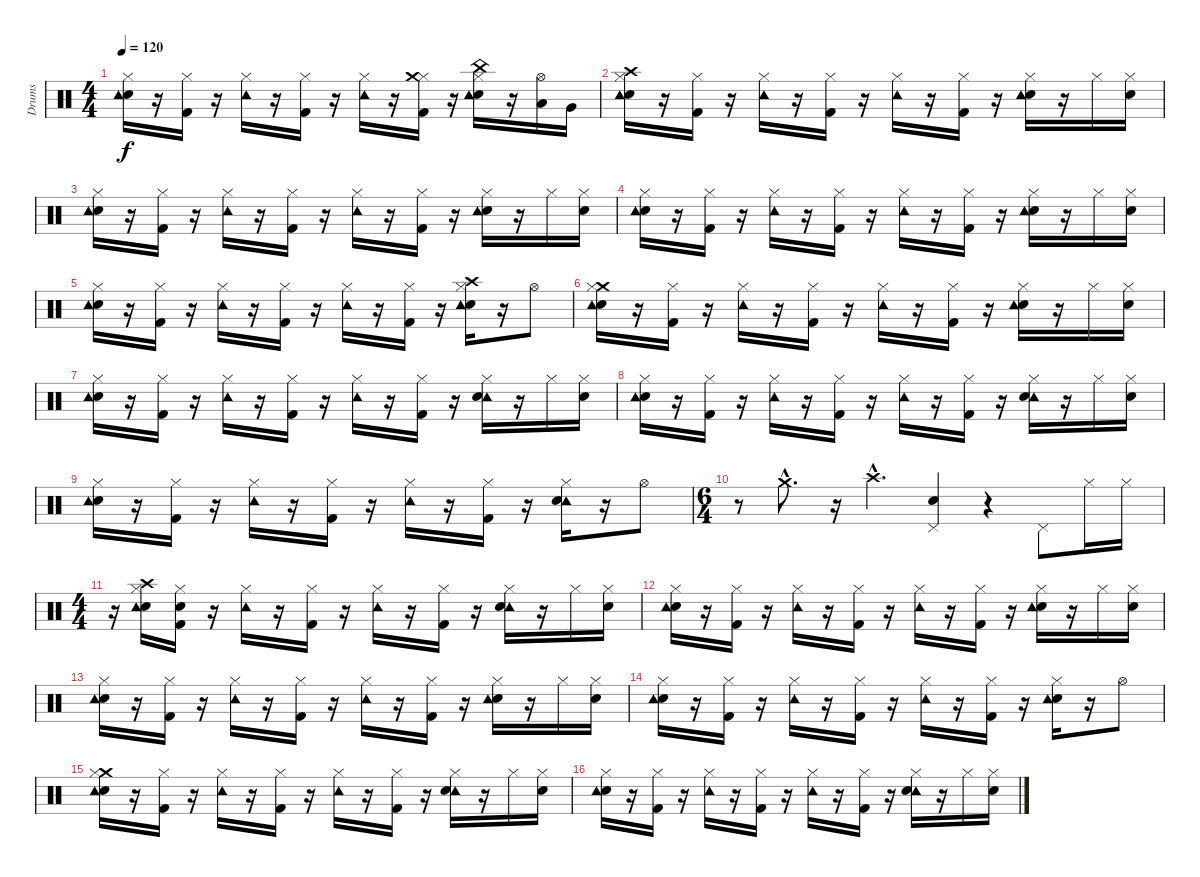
\track ("Drums" "Drums") {instrument percussion}
\staff {score}
\articulation defaults
\ts (4 4)
\tempo 120
\clef neutral
\ks c
("Snare (hit)" "Tambourine (hit)" "Hi-Hat (closed)").16{dy f} r.16 ("Hi-Hat (closed)" "Kick (hit) 2").16 r.16 ("Hi-Hat (closed)" "Tambourine (hit)").16 r.16 ("Hi-Hat (closed)" "Kick (hit) 2").16 r.16 ("Hi-Hat (closed)" "Tambourine (hit)").16 r.16 ("Hi-Hat (closed)" "Kick (hit) 2" "Crash medium (hit)").16 r.16 ("China (hit)" "Hi-Hat (closed)" "Snare (hit) 2" "Tambourine (hit)").16 r.16 ("Hi-Hat (open)" "Low Tom (hit)").16 "Very Low Tom (hit)".16 |
("Snare (hit)" "Hi-Hat (closed)" "Crash high (hit)" "Tambourine (hit)").16 r.16 ("Hi-Hat (closed)" "Kick (hit) 2").16 r.16 ("Tambourine (hit)" "Hi-Hat (closed)").16 r.16 ("Hi-Hat (closed)" "Kick (hit) 2").16 r.16 ("Tambourine (hit)" "Hi-Hat (closed)").16 r.16 ("Hi-Hat (closed)" "Kick (hit) 2").16 r.16 ("Snare (hit) 2" "Tambourine (hit)" "Hi-Hat (closed)").16 r.16 "Hi-Hat (closed)".16 ("Snare (hit)" "Hi-Hat (closed)").16 |
("Snare (hit)" "Hi-Hat (closed)" "Tambourine (hit)").16 r.16 ("Kick (hit) 2" "Hi-Hat (closed)").16 r.16 ("Tambourine (hit)" "Hi-Hat (closed)").16 r.16 ("Hi-Hat (closed)" "Kick (hit) 2").16 r.16 ("Hi-Hat (closed)" "Tambourine (hit)").16 r.16 ("Kick (hit) 2" "Hi-Hat (closed)").16 r.16 ("Snare (hit) 2" "Tambourine (hit)" "Hi-Hat (closed)").16 r.16 "Hi-Hat (closed)".16 ("Snare (hit)" "Hi-Hat (closed)").16 |
("Snare (hit)" "Hi-Hat (closed)" "Tambourine (hit)").16 r.16 ("Kick (hit) 2" "Hi-Hat (closed)").16 r.16 ("Tambourine (hit)" "Hi-Hat (closed)").16 r.16 ("Kick (hit) 2" "Hi-Hat (closed)").16 r.16 ("Tambourine (hit)" "Hi-Hat (closed)").16 r.16 ("Kick (hit) 2" "Hi-Hat (closed)").16 r.16 ("Hi-Hat (closed)" "Snare (hit) 2" "Tambourine (hit)").16 r.16 "Hi-Hat (closed)".16 ("Snare (hit)" "Hi-Hat (closed)").16 |
("Snare (hit)" "Tambourine (hit)" "Hi-Hat (closed)").16 r.16 ("Hi-Hat (closed)" "Kick (hit) 2").16 r.16 ("Hi-Hat (closed)" "Tambourine (hit)").16 r.16 ("Hi-Hat (closed)" "Kick (hit) 2").16 r.16 ("Tambourine (hit)" "Hi-Hat (closed)").16 r.16 ("Hi-Hat (closed)" "Kick (hit) 2").16 r.16 ("Hi-Hat (closed)" "Crash high (hit)" "Snare (hit) 2" "Tambourine (hit)").16 r.16 "Hi-Hat (open)".8 |
("Snare (hit)" "Crash medium (hit)" "Tambourine (hit)" "Hi-Hat (closed)").16 r.16 ("Hi-Hat (closed)" "Kick (hit) 2").16 r.16 ("Hi-Hat (closed)" "Tambourine (hit)").16 r.16 ("Hi-Hat (closed)" "Kick (hit) 2").16 r.16 ("Hi-Hat (closed)" "Tambourine (hit)").16 r.16 ("Kick (hit) 2" "Hi-Hat (closed)").16 r.16 ("Snare (hit) 2" "Tambourine (hit)" "Hi-Hat (closed)").16 r.16 "Hi-Hat (closed)".16 ("Snare (hit)" "Hi-Hat (closed)").16 |
("Snare (hit)" "Tambourine (hit)" "Hi-Hat (closed)").16 r.16 ("Kick (hit) 2" "Hi-Hat (closed)").16 r.16 ("Hi-Hat (closed)" "Tambourine (hit)").16 r.16 ("Hi-Hat (closed)" "Kick (hit) 2").16 r.16 ("Hi-Hat (closed)" "Tambourine (hit)").16 r.16 ("Hi-Hat (closed)" "Kick (hit) 2").16 r.16 ("Tambourine (hit)" "Snare (hit) 2" "Hi-Hat (closed)").16 r.16 "Hi-Hat (closed)".16 ("Snare (hit)" "Hi-Hat (closed)").16 |
("Snare (hit)" "Tambourine (hit)" "Hi-Hat (closed)").16 r.16 ("Kick (hit) 2" "Hi-Hat (closed)").16 r.16 ("Tambourine (hit)" "Hi-Hat (closed)").16 r.16 ("Hi-Hat (closed)" "Kick (hit) 2").16 r.16 ("Hi-Hat (closed)" "Tambourine (hit)").16 r.16 ("Kick (hit) 2" "Hi-Hat (closed)").16 r.16 ("Hi-Hat (closed)" "Tambourine (hit)" "Snare (hit) 2").16 r.16 "Hi-Hat (closed)".16 ("Snare (hit)" "Hi-Hat (closed)").16 |
("Snare (hit)" "Tambourine (hit)" "Hi-Hat (closed)").16 r.16 ("Hi-Hat (closed)" "Kick (hit) 2").16 r.16 ("Tambourine (hit)" "Hi-Hat (closed)").16 r.16 ("Kick (hit) 2" "Hi-Hat (closed)").16 r.16 ("Hi-Hat (closed)" "Tambourine (hit)").16 r.16 ("Kick (hit) 2" "Hi-Hat (closed)").16 r.16 ("Tambourine (hit)" "Snare (hit) 2" "Hi-Hat (closed)").16 r.16 "Hi-Hat (open)".8 |
\ts (6 4)
r.8 "Crash medium (hit)"{hac}.8{d} r.16 "Crash high (hit)"{hac}.4{d} ("Snare (hit)" "Pedal Hi-Hat (hit)").4 r.4 "Pedal Hi-Hat (hit)".8 "Hi-Hat (closed)".16 "Hi-Hat (closed)".16 |
\ts (4 4)
r.16 ("Snare (hit)" "Hi-Hat (closed)" "Crash high (hit)" "Tambourine (hit)").16 ("Snare (hit)" "Kick (hit) 2" "Hi-Hat (closed)").16 r.16 ("Tambourine (hit)" "Hi-Hat (closed)").16 r.16 ("Hi-Hat (closed)" "Kick (hit) 2").16 r.16 ("Tambourine (hit)" "Hi-Hat (closed)").16 r.16 ("Hi-Hat (closed)" "Kick (hit) 2").16 r.16 ("Tambourine (hit)" "Snare (hit) 2" "Hi-Hat (closed)").16 r.16 "Hi-Hat (closed)".16 ("Snare (hit)" "Hi-Hat (closed)").16 |
("Snare (hit)" "Tambourine (hit)" "Hi-Hat (closed)").16 r.16 ("Hi-Hat (closed)" "Kick (hit) 2").16 r.16 ("Hi-Hat (closed)" "Tambourine (hit)").16 r.16 ("Hi-Hat (closed)" "Kick (hit) 2").16 r.16 ("Tambourine (hit)" "Hi-Hat (closed)").16 r.16 ("Kick (hit) 2" "Hi-Hat (closed)").16 r.16 ("Snare (hit) 2" "Hi-Hat (closed)" "Tambourine (hit)").16 r.16 "Hi-Hat (closed)".16 ("Snare (hit)" "Hi-Hat (closed)").16 |
("Snare (hit)" "Tambourine (hit)" "Hi-Hat (closed)").16 r.16 ("Hi-Hat (closed)" "Kick (hit) 2").16 r.16 ("Hi-Hat (closed)" "Tambourine (hit)").16 r.16 ("Hi-Hat (closed)" "Kick (hit) 2").16 r.16 ("Tambourine (hit)" "Hi-Hat (closed)").16 r.16 ("Kick (hit) 2" "Hi-Hat (closed)").16 r.16 ("Snare (hit) 2" "Hi-Hat (closed)" "Tambourine (hit)").16 r.16 "Hi-Hat (closed)".16 ("Snare (hit)" "Hi-Hat (closed)").16 |
("Snare (hit)" "Tambourine (hit)" "Hi-Hat (closed)").16 r.16 ("Kick (hit) 2" "Hi-Hat (closed)").16 r.16 ("Tambourine (hit)" "Hi-Hat (closed)").16 r.16 ("Kick (hit) 2" "Hi-Hat (closed)").16 r.16 ("Tambourine (hit)" "Hi-Hat (closed)").16 r.16 ("Kick (hit) 2" "Hi-Hat (closed)").16 r.16 ("Snare (hit) 2" "Hi-Hat (closed)" "Tambourine (hit)").16 r.16 "Hi-Hat (open)".8 |
("Snare (hit)" "Crash medium (hit)" "Tambourine (hit)" "Hi-Hat (closed)").16 r.16 ("Kick (hit) 2" "Hi-Hat (closed)").16 r.16 ("Tambourine (hit)" "Hi-Hat (closed)").16 r.16 ("Hi-Hat (closed)" "Kick (hit) 2").16 r.16 ("Tambourine (hit)" "Hi-Hat (closed)").16 r.16 ("Kick (hit) 2" "Hi-Hat (closed)").16 r.16 ("Hi-Hat (closed)" "Tambourine (hit)" "Snare (hit) 2").16 r.16 "Hi-Hat (closed)".16 ("Snare (hit)" "Hi-Hat (closed)").16 |
("Snare (hit)" "Hi-Hat (closed)" "Tambourine (hit)").16 r.16 ("Hi-Hat (closed)" "Kick (hit) 2").16 r.16 ("Tambourine (hit)" "Hi-Hat (closed)").16 r.16 ("Kick (hit) 2" "Hi-Hat (closed)").16 r.16 ("Tambourine (hit)" "Hi-Hat (closed)").16 r.16 ("Kick (hit) 2" "Hi-Hat (closed)").16 r.16 ("Tambourine (hit)" "Snare (hit) 2" "Hi-Hat (closed)").16 r.16 "Hi-Hat (closed)".16 ("Snare (hit)" "Hi-Hat (closed)").16
